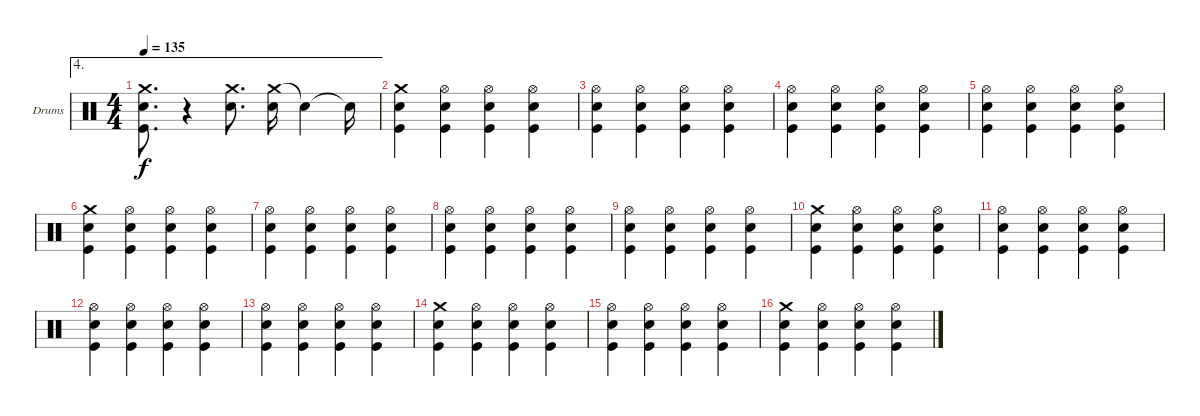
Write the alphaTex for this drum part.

\bracketExtendMode groupsimilarinstruments
\firstSystemTrackNameOrientation horizontal
\otherSystemsTrackNameOrientation horizontal
\track ("Drumkit" "Drums") {instrument percussion}
\staff {score}
\articulation defaults
\ae 4
\ts (4 4)
\tempo 135
\clef neutral
\ks c
("Crash medium (hit)" "Kick (hit)" "Snare (hit) 2").8{d dy f} r.4 ("Crash medium (hit)" "Snare (hit) 2").8{d} ("Crash medium (hit)" "Snare (hit) 2").16 "Snare (hit) 2"{t}.4 "Snare (hit) 2"{t}.16 |
("Crash medium (hit)" "Kick (hit)" "Snare (hit) 2").4 ("Hi-Hat (open)" "Kick (hit)" "Snare (hit) 2").4 ("Hi-Hat (open)" "Kick (hit)" "Snare (hit) 2").4 ("Hi-Hat (open)" "Kick (hit)" "Snare (hit) 2").4 |
("Hi-Hat (open)" "Kick (hit)" "Snare (hit) 2").4 ("Hi-Hat (open)" "Kick (hit)" "Snare (hit) 2").4 ("Hi-Hat (open)" "Kick (hit)" "Snare (hit) 2").4 ("Hi-Hat (open)" "Kick (hit)" "Snare (hit) 2").4 |
("Hi-Hat (open)" "Kick (hit)" "Snare (hit) 2").4 ("Hi-Hat (open)" "Kick (hit)" "Snare (hit) 2").4 ("Hi-Hat (open)" "Kick (hit)" "Snare (hit) 2").4 ("Hi-Hat (open)" "Kick (hit)" "Snare (hit) 2").4 |
("Hi-Hat (open)" "Kick (hit)" "Snare (hit) 2").4 ("Hi-Hat (open)" "Kick (hit)" "Snare (hit) 2").4 ("Hi-Hat (open)" "Kick (hit)" "Snare (hit) 2").4 ("Hi-Hat (open)" "Kick (hit)" "Snare (hit) 2").4 |
("Crash medium (hit)" "Kick (hit)" "Snare (hit) 2").4 ("Hi-Hat (open)" "Kick (hit)" "Snare (hit) 2").4 ("Hi-Hat (open)" "Kick (hit)" "Snare (hit) 2").4 ("Hi-Hat (open)" "Kick (hit)" "Snare (hit) 2").4 |
("Hi-Hat (open)" "Kick (hit)" "Snare (hit) 2").4 ("Hi-Hat (open)" "Kick (hit)" "Snare (hit) 2").4 ("Hi-Hat (open)" "Kick (hit)" "Snare (hit) 2").4 ("Hi-Hat (open)" "Kick (hit)" "Snare (hit) 2").4 |
("Hi-Hat (open)" "Kick (hit)" "Snare (hit) 2").4 ("Hi-Hat (open)" "Kick (hit)" "Snare (hit) 2").4 ("Hi-Hat (open)" "Kick (hit)" "Snare (hit) 2").4 ("Hi-Hat (open)" "Kick (hit)" "Snare (hit) 2").4 |
("Hi-Hat (open)" "Kick (hit)" "Snare (hit) 2").4 ("Hi-Hat (open)" "Kick (hit)" "Snare (hit) 2").4 ("Hi-Hat (open)" "Kick (hit)" "Snare (hit) 2").4 ("Hi-Hat (open)" "Kick (hit)" "Snare (hit) 2").4 |
("Crash medium (hit)" "Kick (hit)" "Snare (hit) 2").4 ("Hi-Hat (open)" "Kick (hit)" "Snare (hit) 2").4 ("Hi-Hat (open)" "Kick (hit)" "Snare (hit) 2").4 ("Hi-Hat (open)" "Kick (hit)" "Snare (hit) 2").4 |
("Hi-Hat (open)" "Kick (hit)" "Snare (hit) 2").4 ("Hi-Hat (open)" "Kick (hit)" "Snare (hit) 2").4 ("Hi-Hat (open)" "Kick (hit)" "Snare (hit) 2").4 ("Hi-Hat (open)" "Kick (hit)" "Snare (hit) 2").4 |
("Hi-Hat (open)" "Kick (hit)" "Snare (hit) 2").4 ("Hi-Hat (open)" "Kick (hit)" "Snare (hit) 2").4 ("Hi-Hat (open)" "Kick (hit)" "Snare (hit) 2").4 ("Hi-Hat (open)" "Kick (hit)" "Snare (hit) 2").4 |
("Hi-Hat (open)" "Kick (hit)" "Snare (hit) 2").4 ("Hi-Hat (open)" "Kick (hit)" "Snare (hit) 2").4 ("Hi-Hat (open)" "Kick (hit)" "Snare (hit) 2").4 ("Hi-Hat (open)" "Kick (hit)" "Snare (hit) 2").4 |
("Crash medium (hit)" "Kick (hit)" "Snare (hit) 2").4 ("Hi-Hat (open)" "Kick (hit)" "Snare (hit) 2").4 ("Hi-Hat (open)" "Kick (hit)" "Snare (hit) 2").4 ("Hi-Hat (open)" "Kick (hit)" "Snare (hit) 2").4 |
("Hi-Hat (open)" "Kick (hit)" "Snare (hit) 2").4 ("Hi-Hat (open)" "Kick (hit)" "Snare (hit) 2").4 ("Hi-Hat (open)" "Kick (hit)" "Snare (hit) 2").4 ("Hi-Hat (open)" "Kick (hit)" "Snare (hit) 2").4 |
("Crash medium (hit)" "Kick (hit)" "Snare (hit) 2").4 ("Hi-Hat (open)" "Kick (hit)" "Snare (hit) 2").4 ("Hi-Hat (open)" "Kick (hit)" "Snare (hit) 2").4 ("Hi-Hat (open)" "Kick (hit)" "Snare (hit) 2").4
